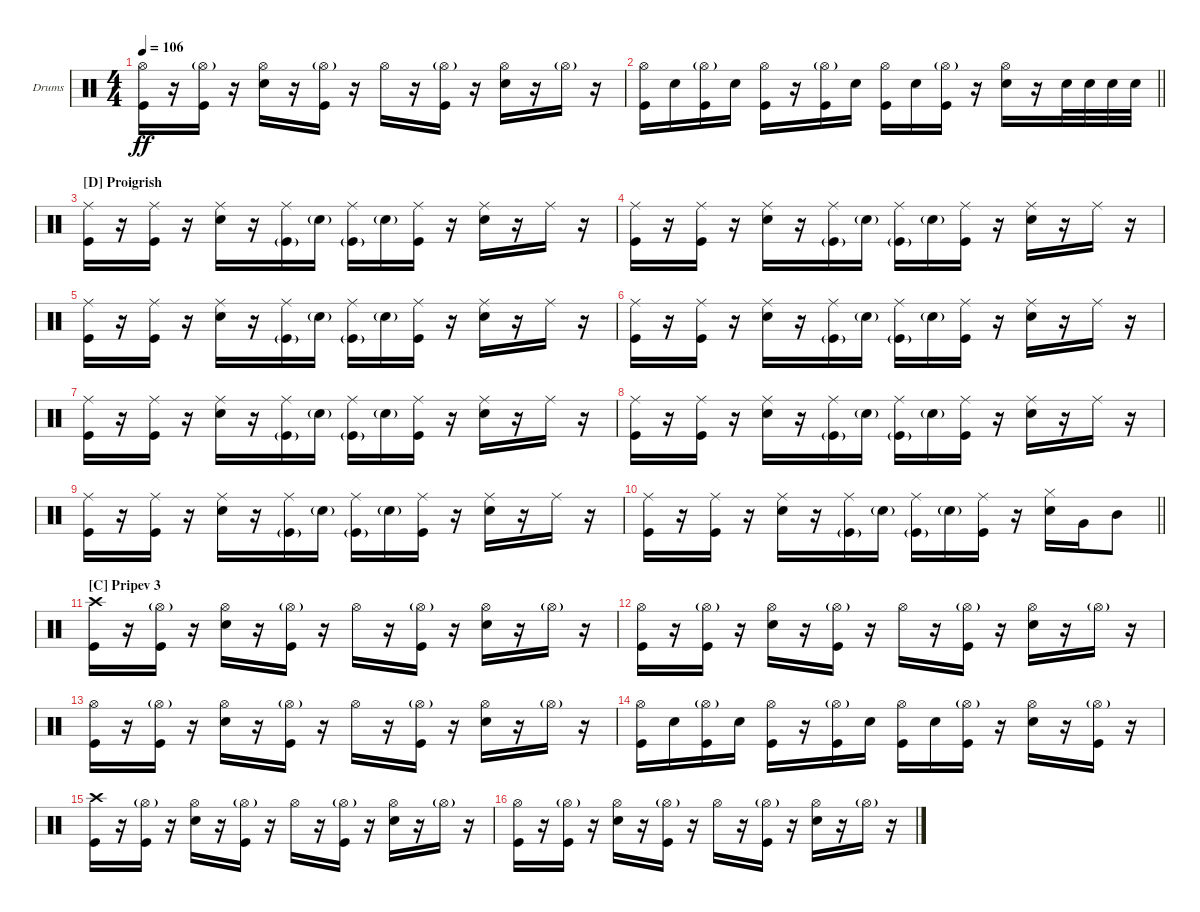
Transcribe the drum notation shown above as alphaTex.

\bracketExtendMode groupsimilarinstruments
\firstSystemTrackNameOrientation horizontal
\otherSystemsTrackNameOrientation horizontal
\track ("Udarnyye | A. Storozhuk" "Drums") {instrument percussion}
\staff {score}
\articulation defaults
\ts (4 4)
\tempo 106
\clef neutral
\ks c
("Hi-Hat (open)" "Kick (hit)").16{dy ff} r.16 ("Hi-Hat (open)"{g} "Kick (hit)").16 r.16 ("Hi-Hat (open)" "Snare (hit) 2").16 r.16 ("Hi-Hat (open)"{g} "Kick (hit)").16 r.16 "Hi-Hat (open)".16 r.16 ("Hi-Hat (open)"{g} "Kick (hit)").16 r.16 ("Hi-Hat (open)" "Snare (hit) 2").16 r.16 "Hi-Hat (open)"{g}.16 r.16 |
\barLineRight lightlight
("Hi-Hat (open)" "Kick (hit)").16 "Snare (hit) 2".16 ("Hi-Hat (open)"{g} "Kick (hit)").16 "Snare (hit) 2".16 ("Hi-Hat (open)" "Kick (hit)").16 r.16 ("Hi-Hat (open)"{g} "Kick (hit)").16 "Snare (hit) 2".16 ("Hi-Hat (open)" "Kick (hit)").16 "Snare (hit) 2".16 ("Hi-Hat (open)"{g} "Kick (hit)").16 r.16 ("Hi-Hat (open)" "Snare (hit) 2").16 r.16 "Snare (hit) 2".32 "Snare (hit) 2".32 "Snare (hit) 2".32 "Snare (hit) 2".32 |
\section ("D" "Proigrish")
("Ride (middle)" "Kick (hit)").16 r.16 ("Ride (middle)" "Kick (hit)").16 r.16 ("Ride (middle)" "Snare (hit) 2").16 r.16 ("Ride (middle)" "Kick (hit)"{g}).16 "Snare (hit) 2"{g}.16 ("Ride (middle)" "Kick (hit)"{g}).16 "Snare (hit) 2"{g}.16 ("Ride (middle)" "Kick (hit)").16 r.16 ("Ride (middle)" "Snare (hit) 2").16 r.16 "Ride (middle)".16 r.16 |
("Ride (middle)" "Kick (hit)").16 r.16 ("Ride (middle)" "Kick (hit)").16 r.16 ("Ride (middle)" "Snare (hit) 2").16 r.16 ("Ride (middle)" "Kick (hit)"{g}).16 "Snare (hit) 2"{g}.16 ("Ride (middle)" "Kick (hit)"{g}).16 "Snare (hit) 2"{g}.16 ("Ride (middle)" "Kick (hit)").16 r.16 ("Ride (middle)" "Snare (hit) 2").16 r.16 "Ride (middle)".16 r.16 |
("Ride (middle)" "Kick (hit)").16 r.16 ("Ride (middle)" "Kick (hit)").16 r.16 ("Ride (middle)" "Snare (hit) 2").16 r.16 ("Ride (middle)" "Kick (hit)"{g}).16 "Snare (hit) 2"{g}.16 ("Ride (middle)" "Kick (hit)"{g}).16 "Snare (hit) 2"{g}.16 ("Ride (middle)" "Kick (hit)").16 r.16 ("Ride (middle)" "Snare (hit) 2").16 r.16 "Ride (middle)".16 r.16 |
("Ride (middle)" "Kick (hit)").16 r.16 ("Ride (middle)" "Kick (hit)").16 r.16 ("Ride (middle)" "Snare (hit) 2").16 r.16 ("Ride (middle)" "Kick (hit)"{g}).16 "Snare (hit) 2"{g}.16 ("Ride (middle)" "Kick (hit)"{g}).16 "Snare (hit) 2"{g}.16 ("Ride (middle)" "Kick (hit)").16 r.16 ("Ride (middle)" "Snare (hit) 2").16 r.16 "Ride (middle)".16 r.16 |
("Ride (middle)" "Kick (hit)").16 r.16 ("Ride (middle)" "Kick (hit)").16 r.16 ("Ride (middle)" "Snare (hit) 2").16 r.16 ("Ride (middle)" "Kick (hit)"{g}).16 "Snare (hit) 2"{g}.16 ("Ride (middle)" "Kick (hit)"{g}).16 "Snare (hit) 2"{g}.16 ("Ride (middle)" "Kick (hit)").16 r.16 ("Ride (middle)" "Snare (hit) 2").16 r.16 "Ride (middle)".16 r.16 |
("Ride (middle)" "Kick (hit)").16 r.16 ("Ride (middle)" "Kick (hit)").16 r.16 ("Ride (middle)" "Snare (hit) 2").16 r.16 ("Ride (middle)" "Kick (hit)"{g}).16 "Snare (hit) 2"{g}.16 ("Ride (middle)" "Kick (hit)"{g}).16 "Snare (hit) 2"{g}.16 ("Ride (middle)" "Kick (hit)").16 r.16 ("Ride (middle)" "Snare (hit) 2").16 r.16 "Ride (middle)".16 r.16 |
("Ride (middle)" "Kick (hit)").16 r.16 ("Ride (middle)" "Kick (hit)").16 r.16 ("Ride (middle)" "Snare (hit) 2").16 r.16 ("Ride (middle)" "Kick (hit)"{g}).16 "Snare (hit) 2"{g}.16 ("Ride (middle)" "Kick (hit)"{g}).16 "Snare (hit) 2"{g}.16 ("Ride (middle)" "Kick (hit)").16 r.16 ("Ride (middle)" "Snare (hit) 2").16 r.16 "Ride (middle)".16 r.16 |
\barLineRight lightlight
("Ride (middle)" "Kick (hit)").16 r.16 ("Ride (middle)" "Kick (hit)").16 r.16 ("Ride (middle)" "Snare (hit) 2").16 r.16 ("Ride (middle)" "Kick (hit)"{g}).16 "Snare (hit) 2"{g}.16 ("Ride (middle)" "Kick (hit)"{g}).16 "Snare (hit) 2"{g}.16 ("Ride (middle)" "Kick (hit)").16 r.16 ("Hi-Hat (closed)" "Snare (hit) 2").16 "Very Low Tom (hit)".16 "Mid Tom (hit)".8 |
\section ("C" "Pripev 3")
("Crash high (hit)" "Kick (hit)").16 r.16 ("Hi-Hat (open)"{g} "Kick (hit)").16 r.16 ("Hi-Hat (open)" "Snare (hit) 2").16 r.16 ("Hi-Hat (open)"{g} "Kick (hit)").16 r.16 "Hi-Hat (open)".16 r.16 ("Hi-Hat (open)"{g} "Kick (hit)").16 r.16 ("Hi-Hat (open)" "Snare (hit) 2").16 r.16 "Hi-Hat (open)"{g}.16 r.16 |
("Hi-Hat (open)" "Kick (hit)").16 r.16 ("Hi-Hat (open)"{g} "Kick (hit)").16 r.16 ("Hi-Hat (open)" "Snare (hit) 2").16 r.16 ("Hi-Hat (open)"{g} "Kick (hit)").16 r.16 "Hi-Hat (open)".16 r.16 ("Hi-Hat (open)"{g} "Kick (hit)").16 r.16 ("Hi-Hat (open)" "Snare (hit) 2").16 r.16 "Hi-Hat (open)"{g}.16 r.16 |
("Hi-Hat (open)" "Kick (hit)").16 r.16 ("Hi-Hat (open)"{g} "Kick (hit)").16 r.16 ("Hi-Hat (open)" "Snare (hit) 2").16 r.16 ("Hi-Hat (open)"{g} "Kick (hit)").16 r.16 "Hi-Hat (open)".16 r.16 ("Hi-Hat (open)"{g} "Kick (hit)").16 r.16 ("Hi-Hat (open)" "Snare (hit) 2").16 r.16 "Hi-Hat (open)"{g}.16 r.16 |
("Hi-Hat (open)" "Kick (hit)").16 "Snare (hit) 2".16 ("Hi-Hat (open)"{g} "Kick (hit)").16 "Snare (hit) 2".16 ("Hi-Hat (open)" "Kick (hit)").16 r.16 ("Hi-Hat (open)"{g} "Kick (hit)").16 "Snare (hit) 2".16 ("Hi-Hat (open)" "Kick (hit)").16 "Snare (hit) 2".16 ("Hi-Hat (open)"{g} "Kick (hit)").16 r.16 ("Hi-Hat (open)" "Snare (hit) 2").16 r.16 ("Hi-Hat (open)"{g} "Kick (hit)").16 r.16 |
("Crash high (hit)" "Kick (hit)").16 r.16 ("Hi-Hat (open)"{g} "Kick (hit)").16 r.16 ("Hi-Hat (open)" "Snare (hit) 2").16 r.16 ("Hi-Hat (open)"{g} "Kick (hit)").16 r.16 "Hi-Hat (open)".16 r.16 ("Hi-Hat (open)"{g} "Kick (hit)").16 r.16 ("Hi-Hat (open)" "Snare (hit) 2").16 r.16 "Hi-Hat (open)"{g}.16 r.16 |
("Hi-Hat (open)" "Kick (hit)").16 r.16 ("Hi-Hat (open)"{g} "Kick (hit)").16 r.16 ("Hi-Hat (open)" "Snare (hit) 2").16 r.16 ("Hi-Hat (open)"{g} "Kick (hit)").16 r.16 "Hi-Hat (open)".16 r.16 ("Hi-Hat (open)"{g} "Kick (hit)").16 r.16 ("Hi-Hat (open)" "Snare (hit) 2").16 r.16 "Hi-Hat (open)"{g}.16 r.16
